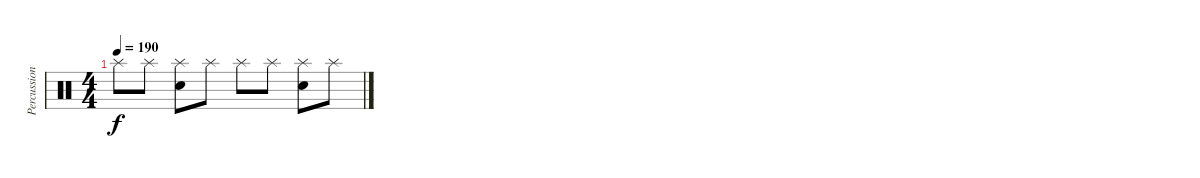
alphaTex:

\track ("Percussion" "Percussion") {instrument percussion}
\staff {score}
\articulation defaults
\ts (4 4)
\tempo 190
\clef neutral
\ks c "Splash (hit)".8{dy f} "Splash (hit)".8
("Splash (hit)" "Electric Snare (hit)").8 "Splash (hit)".8 "Splash (hit)".8 "Splash (hit)".8 ("Splash (hit)" "Electric Snare (hit)").8 "Splash (hit)".8
